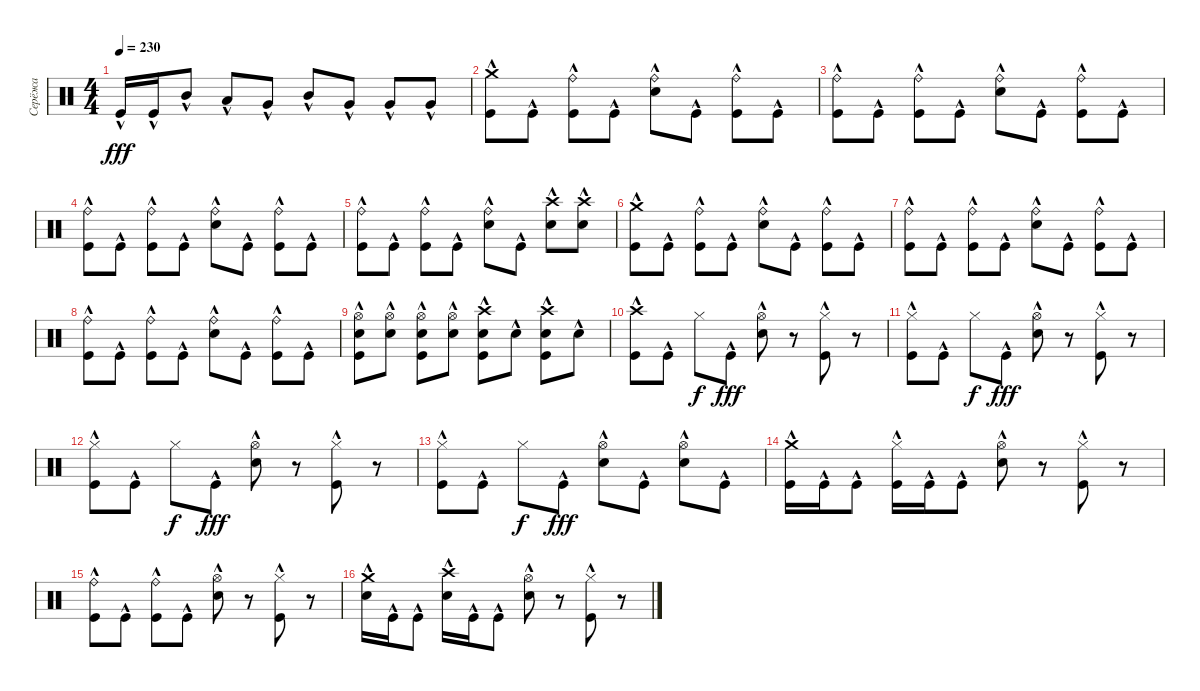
\track ("Серёжа" "Серёжа") {instrument percussion}
\staff {score}
\articulation defaults
\ts (4 4)
\tempo 230
\clef neutral
\ks c "Kick (hit)"{hac}.16{dy fff} "Kick (hit)"{hac}.16 "Mid Tom (hit)"{hac}.8 "Low Tom (hit)"{hac}.8 "Very Low Tom (hit)"{hac}.8 "Mid Tom (hit)"{hac}.8 "Very Low Tom (hit)"{hac}.8 "Very Low Tom (hit)"{hac}.8 "Very Low Tom (hit)"{hac}.8
|
("Crash medium (hit)"{hac} "Kick (hit)"{hac}).8 "Kick (hit)"{hac}.8 ("Ride (bell)" "Kick (hit)"{hac}).8 "Kick (hit)"{hac}.8 ("Ride (bell)" "Snare (hit) 2"{hac}).8 "Kick (hit)"{hac}.8 ("Ride (bell)" "Kick (hit)"{hac}).8 "Kick (hit)"{hac}.8 |
("Ride (bell)" "Kick (hit)"{hac}).8 "Kick (hit)"{hac}.8 ("Ride (bell)" "Kick (hit)"{hac}).8 "Kick (hit)"{hac}.8 ("Ride (bell)" "Snare (hit) 2"{hac}).8 "Kick (hit)"{hac}.8 ("Ride (bell)" "Kick (hit)"{hac}).8 "Kick (hit)"{hac}.8 |
("Ride (bell)" "Kick (hit)"{hac}).8 "Kick (hit)"{hac}.8 ("Ride (bell)" "Kick (hit)"{hac}).8 "Kick (hit)"{hac}.8 ("Ride (bell)" "Snare (hit) 2"{hac}).8 "Kick (hit)"{hac}.8 ("Ride (bell)" "Kick (hit)"{hac}).8 "Kick (hit)"{hac}.8 |
("Ride (bell)" "Kick (hit)"{hac}).8 "Kick (hit)"{hac}.8 ("Ride (bell)" "Kick (hit)"{hac}).8 "Kick (hit)"{hac}.8 ("Ride (bell)" "Snare (hit) 2"{hac}).8 "Kick (hit)"{hac}.8 ("Crash high (hit)" "Snare (hit) 2"{hac}).8 ("Crash high (hit)" "Snare (hit) 2"{hac}).8 |
("Crash medium (hit)"{hac} "Kick (hit)"{hac}).8 "Kick (hit)"{hac}.8 ("Ride (bell)" "Kick (hit)"{hac}).8 "Kick (hit)"{hac}.8 ("Ride (bell)" "Snare (hit) 2"{hac}).8 "Kick (hit)"{hac}.8 ("Ride (bell)" "Kick (hit)"{hac}).8 "Kick (hit)"{hac}.8 |
("Ride (bell)" "Kick (hit)"{hac}).8 "Kick (hit)"{hac}.8 ("Ride (bell)" "Kick (hit)"{hac}).8 "Kick (hit)"{hac}.8 ("Ride (bell)" "Snare (hit) 2"{hac}).8 "Kick (hit)"{hac}.8 ("Ride (bell)" "Kick (hit)"{hac}).8 "Kick (hit)"{hac}.8 |
("Ride (bell)" "Kick (hit)"{hac}).8 "Kick (hit)"{hac}.8 ("Ride (bell)" "Kick (hit)"{hac}).8 "Kick (hit)"{hac}.8 ("Ride (bell)" "Snare (hit) 2"{hac}).8 "Kick (hit)"{hac}.8 ("Ride (bell)" "Kick (hit)"{hac}).8 "Kick (hit)"{hac}.8 |
("Hi-Hat (open)" "Snare (hit) 2"{hac} "Kick (hit)"{hac}).8 ("Hi-Hat (open)" "Snare (hit) 2"{hac}).8 ("Hi-Hat (open)" "Snare (hit) 2"{hac} "Kick (hit)"{hac}).8 ("Hi-Hat (open)" "Snare (hit) 2"{hac}).8 ("Crash high (hit)" "Snare (hit) 2"{hac} "Kick (hit)"{hac}).8 "Snare (hit) 2"{hac}.8 ("Crash high (hit)" "Snare (hit) 2"{hac} "Kick (hit)"{hac}).8 "Snare (hit) 2"{hac}.8 |
("Crash high (hit)"{hac} "Kick (hit)"{hac}).8 "Kick (hit)"{hac}.8 "Hi-Hat (closed)".8{dy f} "Kick (hit)"{hac}.8{dy fff} ("Hi-Hat (open)" "Snare (hit) 2"{hac}).8 r.8 ("Hi-Hat (closed)" "Kick (hit)"{hac}).8 r.8 |
("Hi-Hat (closed)" "Kick (hit)"{hac}).8 "Kick (hit)"{hac}.8 "Hi-Hat (closed)".8{dy f} "Kick (hit)"{hac}.8{dy fff} ("Hi-Hat (open)" "Snare (hit) 2"{hac}).8 r.8 ("Hi-Hat (closed)" "Kick (hit)"{hac}).8 r.8 |
("Hi-Hat (closed)" "Kick (hit)"{hac}).8 "Kick (hit)"{hac}.8 "Hi-Hat (closed)".8{dy f} "Kick (hit)"{hac}.8{dy fff} ("Hi-Hat (open)" "Snare (hit) 2"{hac}).8 r.8 ("Hi-Hat (closed)" "Kick (hit)"{hac}).8 r.8 |
("Hi-Hat (closed)" "Kick (hit)"{hac}).8 "Kick (hit)"{hac}.8 "Hi-Hat (closed)".8{dy f} "Kick (hit)"{hac}.8{dy fff} ("Hi-Hat (open)" "Snare (hit) 2"{hac}).8 "Kick (hit)"{hac}.8 ("Hi-Hat (open)"{hac} "Snare (hit) 2"{hac}).8 "Kick (hit)"{hac}.8 |
("Crash medium (hit)" "Kick (hit)"{hac}).16 "Kick (hit)"{hac}.16 "Kick (hit)"{hac}.8 ("Hi-Hat (closed)" "Kick (hit)"{hac}).16 "Kick (hit)"{hac}.16 "Kick (hit)"{hac}.8 ("Hi-Hat (open)" "Snare (hit) 2"{hac}).8 r.8 ("Hi-Hat (closed)" "Kick (hit)"{hac}).8 r.8 |
("Ride (bell)" "Kick (hit)"{hac}).8 "Kick (hit)"{hac}.8 ("Ride (bell)" "Kick (hit)"{hac}).8 "Kick (hit)"{hac}.8 ("Hi-Hat (open)" "Snare (hit) 2"{hac}).8 r.8 ("Hi-Hat (closed)" "Kick (hit)"{hac}).8 r.8 |
("Crash medium (hit)" "Snare (hit) 2"{hac}).16 "Kick (hit)"{hac}.16 "Kick (hit)"{hac}.8 ("Crash high (hit)" "Snare (hit) 2"{hac}).16 "Kick (hit)"{hac}.16 "Kick (hit)"{hac}.8 ("Hi-Hat (open)" "Snare (hit) 2"{hac}).8 r.8 ("Hi-Hat (closed)" "Kick (hit)"{hac}).8 r.8
